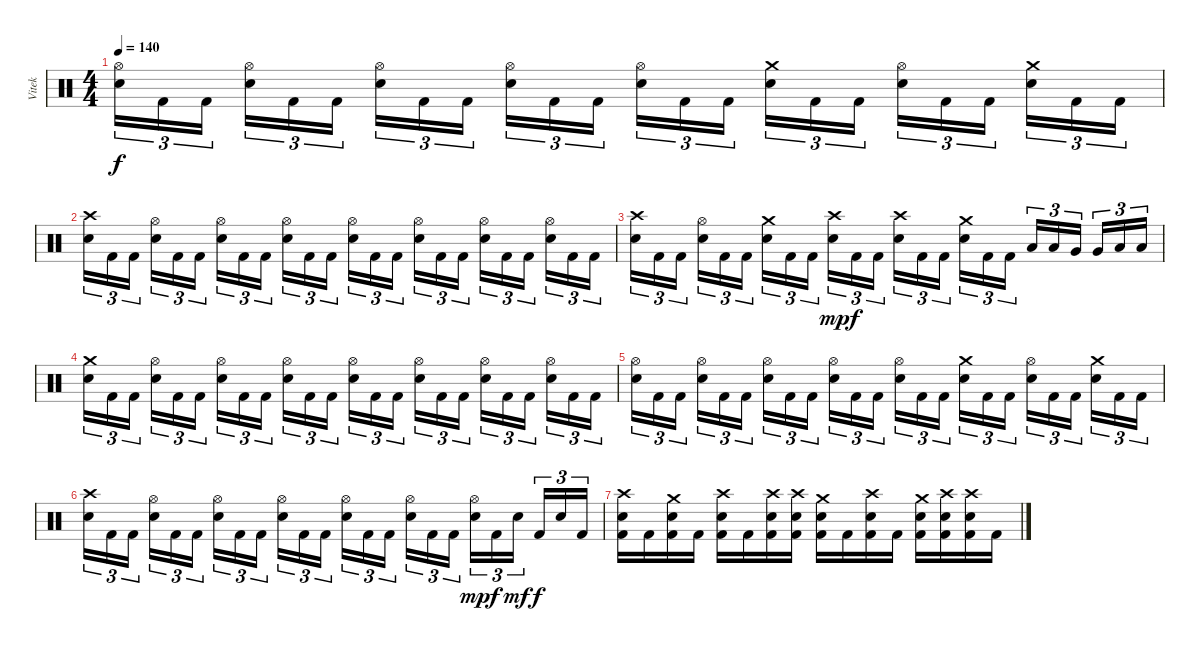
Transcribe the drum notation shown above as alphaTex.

\track ("Vitek" "Vitek") {instrument percussion}
\staff {score}
\articulation defaults
\ts (4 4)
\tempo 140
\clef neutral
\ks c
("Hi-Hat (open)" "Electric Snare (hit)").16{tu (3 2) dy f volume 16} "Kick (hit) 2".16{tu (3 2)} "Kick (hit) 2".16{tu (3 2)} ("Hi-Hat (open)" "Electric Snare (hit)").16{tu (3 2)} "Kick (hit) 2".16{tu (3 2)} "Kick (hit) 2".16{tu (3 2)} ("Hi-Hat (open)" "Electric Snare (hit)").16{tu (3 2)} "Kick (hit) 2".16{tu (3 2)} "Kick (hit) 2".16{tu (3 2)} ("Hi-Hat (open)" "Electric Snare (hit)").16{tu (3 2)} "Kick (hit) 2".16{tu (3 2)} "Kick (hit) 2".16{tu (3 2)} ("Hi-Hat (open)" "Electric Snare (hit)").16{tu (3 2)} "Kick (hit) 2".16{tu (3 2)} "Kick (hit) 2".16{tu (3 2)} ("Crash medium (hit)" "Electric Snare (hit)").16{tu (3 2)} "Kick (hit) 2".16{tu (3 2)} "Kick (hit) 2".16{tu (3 2)} ("Hi-Hat (open)" "Electric Snare (hit)").16{tu (3 2)} "Kick (hit) 2".16{tu (3 2)} "Kick (hit) 2".16{tu (3 2)} ("Crash medium (hit)" "Electric Snare (hit)").16{tu (3 2)} "Kick (hit) 2".16{tu (3 2)} "Kick (hit) 2".16{tu (3 2)} |
("Crash high (hit)" "Electric Snare (hit)").16{tu (3 2) volume 16} "Kick (hit) 2".16{tu (3 2)} "Kick (hit) 2".16{tu (3 2)} ("Hi-Hat (open)" "Electric Snare (hit)").16{tu (3 2)} "Kick (hit) 2".16{tu (3 2)} "Kick (hit) 2".16{tu (3 2)} ("Hi-Hat (open)" "Electric Snare (hit)").16{tu (3 2)} "Kick (hit) 2".16{tu (3 2)} "Kick (hit) 2".16{tu (3 2)} ("Hi-Hat (open)" "Electric Snare (hit)").16{tu (3 2)} "Kick (hit) 2".16{tu (3 2)} "Kick (hit) 2".16{tu (3 2)} ("Hi-Hat (open)" "Electric Snare (hit)").16{tu (3 2)} "Kick (hit) 2".16{tu (3 2)} "Kick (hit) 2".16{tu (3 2)} ("Hi-Hat (open)" "Electric Snare (hit)").16{tu (3 2)} "Kick (hit) 2".16{tu (3 2)} "Kick (hit) 2".16{tu (3 2)} ("Hi-Hat (open)" "Electric Snare (hit)").16{tu (3 2)} "Kick (hit) 2".16{tu (3 2)} "Kick (hit) 2".16{tu (3 2)} ("Hi-Hat (open)" "Electric Snare (hit)").16{tu (3 2)} "Kick (hit) 2".16{tu (3 2)} "Kick (hit) 2".16{tu (3 2)} |
("Crash high (hit)" "Electric Snare (hit)").16{tu (3 2) volume 16} "Kick (hit) 2".16{tu (3 2)} "Kick (hit) 2".16{tu (3 2)} ("Hi-Hat (open)" "Electric Snare (hit)").16{tu (3 2)} "Kick (hit) 2".16{tu (3 2)} "Kick (hit) 2".16{tu (3 2)} ("Crash medium (hit)" "Electric Snare (hit)").16{tu (3 2)} "Kick (hit) 2".16{tu (3 2)} "Kick (hit) 2".16{tu (3 2)} ("Crash high (hit)" "Electric Snare (hit)").16{tu (3 2) dy mp} "Kick (hit) 2".16{tu (3 2) dy f} "Kick (hit) 2".16{tu (3 2)} ("Crash high (hit)" "Electric Snare (hit)").16{tu (3 2)} "Kick (hit) 2".16{tu (3 2)} "Kick (hit) 2".16{tu (3 2)} ("Crash medium (hit)" "Electric Snare (hit)").16{tu (3 2)} "Kick (hit) 2".16{tu (3 2)} "Kick (hit) 2".16{tu (3 2)} "Low Tom (hit)".16{tu (3 2)} "Low Tom (hit)".16{tu (3 2)} "Very Low Tom (hit)".16{tu (3 2)} "Very Low Tom (hit)".16{tu (3 2)} "Low Floor Tom (hit)".16{tu (3 2)} "Low Floor Tom (hit)".16{tu (3 2)} |
("Crash medium (hit)" "Electric Snare (hit)").16{tu (3 2) volume 16} "Kick (hit) 2".16{tu (3 2)} "Kick (hit) 2".16{tu (3 2)} ("Hi-Hat (open)" "Electric Snare (hit)").16{tu (3 2)} "Kick (hit) 2".16{tu (3 2)} "Kick (hit) 2".16{tu (3 2)} ("Hi-Hat (open)" "Electric Snare (hit)").16{tu (3 2)} "Kick (hit) 2".16{tu (3 2)} "Kick (hit) 2".16{tu (3 2)} ("Hi-Hat (open)" "Electric Snare (hit)").16{tu (3 2)} "Kick (hit) 2".16{tu (3 2)} "Kick (hit) 2".16{tu (3 2)} ("Hi-Hat (open)" "Electric Snare (hit)").16{tu (3 2)} "Kick (hit) 2".16{tu (3 2)} "Kick (hit) 2".16{tu (3 2)} ("Hi-Hat (open)" "Electric Snare (hit)").16{tu (3 2)} "Kick (hit) 2".16{tu (3 2)} "Kick (hit) 2".16{tu (3 2)} ("Hi-Hat (open)" "Electric Snare (hit)").16{tu (3 2)} "Kick (hit) 2".16{tu (3 2)} "Kick (hit) 2".16{tu (3 2)} ("Hi-Hat (open)" "Electric Snare (hit)").16{tu (3 2)} "Kick (hit) 2".16{tu (3 2)} "Kick (hit) 2".16{tu (3 2)} |
("Hi-Hat (open)" "Electric Snare (hit)").16{tu (3 2) volume 16} "Kick (hit) 2".16{tu (3 2)} "Kick (hit) 2".16{tu (3 2)} ("Hi-Hat (open)" "Electric Snare (hit)").16{tu (3 2)} "Kick (hit) 2".16{tu (3 2)} "Kick (hit) 2".16{tu (3 2)} ("Hi-Hat (open)" "Electric Snare (hit)").16{tu (3 2)} "Kick (hit) 2".16{tu (3 2)} "Kick (hit) 2".16{tu (3 2)} ("Hi-Hat (open)" "Electric Snare (hit)").16{tu (3 2)} "Kick (hit) 2".16{tu (3 2)} "Kick (hit) 2".16{tu (3 2)} ("Hi-Hat (open)" "Electric Snare (hit)").16{tu (3 2)} "Kick (hit) 2".16{tu (3 2)} "Kick (hit) 2".16{tu (3 2)} ("Crash medium (hit)" "Electric Snare (hit)").16{tu (3 2)} "Kick (hit) 2".16{tu (3 2)} "Kick (hit) 2".16{tu (3 2)} ("Hi-Hat (open)" "Electric Snare (hit)").16{tu (3 2)} "Kick (hit) 2".16{tu (3 2)} "Kick (hit) 2".16{tu (3 2)} ("Crash medium (hit)" "Electric Snare (hit)").16{tu (3 2)} "Kick (hit) 2".16{tu (3 2)} "Kick (hit) 2".16{tu (3 2)} |
("Crash high (hit)" "Electric Snare (hit)").16{tu (3 2) volume 16} "Kick (hit) 2".16{tu (3 2)} "Kick (hit) 2".16{tu (3 2)} ("Hi-Hat (open)" "Electric Snare (hit)").16{tu (3 2)} "Kick (hit) 2".16{tu (3 2)} "Kick (hit) 2".16{tu (3 2)} ("Hi-Hat (open)" "Electric Snare (hit)").16{tu (3 2)} "Kick (hit) 2".16{tu (3 2)} "Kick (hit) 2".16{tu (3 2)} ("Hi-Hat (open)" "Electric Snare (hit)").16{tu (3 2)} "Kick (hit) 2".16{tu (3 2)} "Kick (hit) 2".16{tu (3 2)} ("Hi-Hat (open)" "Electric Snare (hit)").16{tu (3 2)} "Kick (hit) 2".16{tu (3 2)} "Kick (hit) 2".16{tu (3 2)} ("Hi-Hat (open)" "Electric Snare (hit)").16{tu (3 2)} "Kick (hit) 2".16{tu (3 2)} "Kick (hit) 2".16{tu (3 2)} ("Hi-Hat (open)" "Electric Snare (hit)").16{tu (3 2) dy mp} "Kick (hit) 2".16{tu (3 2) dy f} "Electric Snare (hit)".16{tu (3 2) dy mf} "Kick (hit) 2".16{tu (3 2) dy f} "Electric Snare (hit)".16{tu (3 2)} "Kick (hit) 2".16{tu (3 2)} |
("Crash high (hit)" "Electric Snare (hit)" "Kick (hit) 2").16 "Kick (hit) 2".16 ("Crash medium (hit)" "Electric Snare (hit)" "Kick (hit) 2").16 "Kick (hit) 2".16 ("Crash high (hit)" "Electric Snare (hit)" "Kick (hit) 2").16 "Kick (hit) 2".16 ("Crash high (hit)" "Electric Snare (hit)" "Kick (hit) 2").16 ("Crash high (hit)" "Electric Snare (hit)" "Kick (hit) 2").16 ("Crash medium (hit)" "Electric Snare (hit)" "Kick (hit) 2").16 "Kick (hit) 2".16 ("Crash high (hit)" "Electric Snare (hit)" "Kick (hit) 2").16 "Kick (hit) 2".16 ("Crash medium (hit)" "Electric Snare (hit)" "Kick (hit) 2").16 ("Crash high (hit)" "Electric Snare (hit)" "Kick (hit) 2").16 ("Crash high (hit)" "Electric Snare (hit)" "Kick (hit) 2").16 "Kick (hit) 2".16
